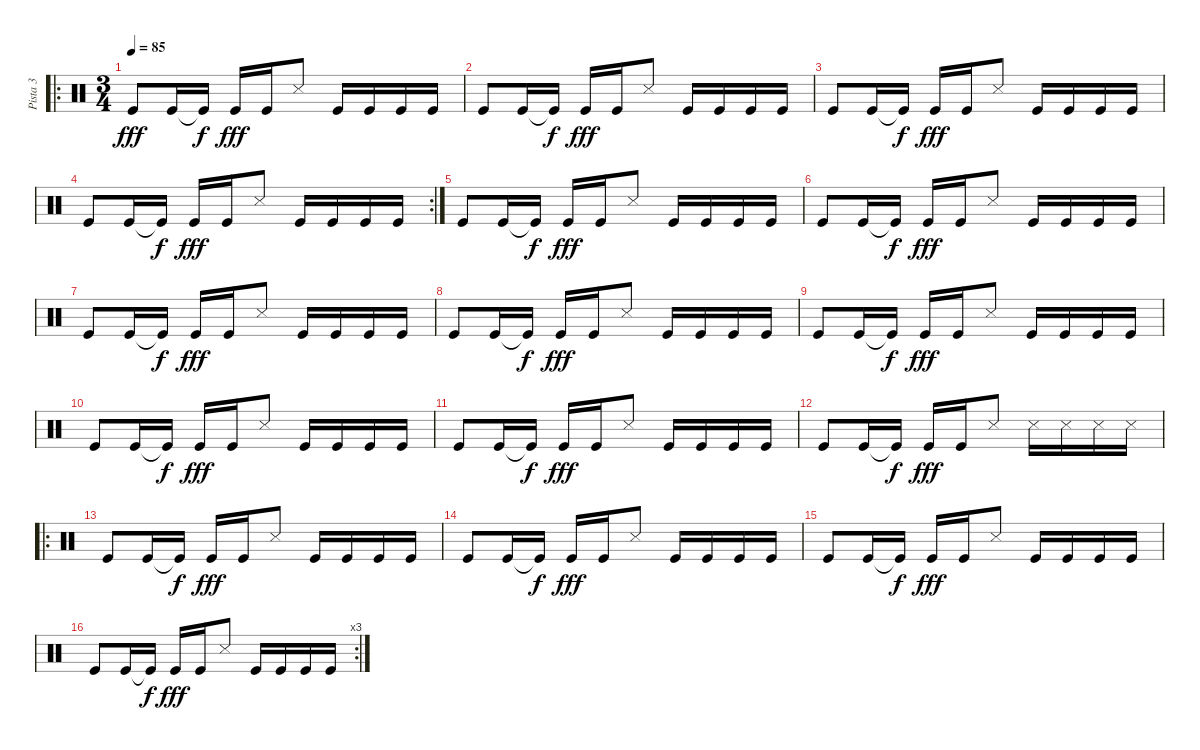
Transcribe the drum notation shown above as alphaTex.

\track ("Pista 3" "Pista 3") {instrument percussion}
\staff {score}
\articulation defaults
\ro
\ts (3 4)
\tempo 85
\clef neutral
\ks c "Kick (hit)".8{dy fff} "Kick (hit)".16 "Kick (hit)"{t}.16{dy f} "Kick (hit)".16{dy fff} "Kick (hit)".16 "Snare (side stick) 3".8 "Kick (hit)".16 "Kick (hit)".16 "Kick (hit)".16 "Kick (hit)".16
|
"Kick (hit)".8 "Kick (hit)".16 "Kick (hit)"{t}.16{dy f} "Kick (hit)".16{dy fff} "Kick (hit)".16 "Snare (side stick) 3".8 "Kick (hit)".16 "Kick (hit)".16 "Kick (hit)".16 "Kick (hit)".16 |
"Kick (hit)".8 "Kick (hit)".16 "Kick (hit)"{t}.16{dy f} "Kick (hit)".16{dy fff} "Kick (hit)".16 "Snare (side stick) 3".8 "Kick (hit)".16 "Kick (hit)".16 "Kick (hit)".16 "Kick (hit)".16 |
\rc 2 "Kick (hit)".8 "Kick (hit)".16 "Kick (hit)"{t}.16{dy f} "Kick (hit)".16{dy fff} "Kick (hit)".16 "Snare (side stick) 3".8 "Kick (hit)".16 "Kick (hit)".16 "Kick (hit)".16 "Kick (hit)".16
|
"Kick (hit)".8 "Kick (hit)".16 "Kick (hit)"{t}.16{dy f} "Kick (hit)".16{dy fff} "Kick (hit)".16 "Snare (side stick) 3".8 "Kick (hit)".16 "Kick (hit)".16 "Kick (hit)".16 "Kick (hit)".16 |
"Kick (hit)".8 "Kick (hit)".16 "Kick (hit)"{t}.16{dy f} "Kick (hit)".16{dy fff} "Kick (hit)".16 "Snare (side stick) 3".8 "Kick (hit)".16 "Kick (hit)".16 "Kick (hit)".16 "Kick (hit)".16 |
"Kick (hit)".8 "Kick (hit)".16 "Kick (hit)"{t}.16{dy f} "Kick (hit)".16{dy fff} "Kick (hit)".16 "Snare (side stick) 3".8 "Kick (hit)".16 "Kick (hit)".16 "Kick (hit)".16 "Kick (hit)".16 |
"Kick (hit)".8 "Kick (hit)".16 "Kick (hit)"{t}.16{dy f} "Kick (hit)".16{dy fff} "Kick (hit)".16 "Snare (side stick) 3".8 "Kick (hit)".16 "Kick (hit)".16 "Kick (hit)".16 "Kick (hit)".16 |
"Kick (hit)".8 "Kick (hit)".16 "Kick (hit)"{t}.16{dy f} "Kick (hit)".16{dy fff} "Kick (hit)".16 "Snare (side stick) 3".8 "Kick (hit)".16 "Kick (hit)".16 "Kick (hit)".16 "Kick (hit)".16 |
"Kick (hit)".8 "Kick (hit)".16 "Kick (hit)"{t}.16{dy f} "Kick (hit)".16{dy fff} "Kick (hit)".16 "Snare (side stick) 3".8 "Kick (hit)".16 "Kick (hit)".16 "Kick (hit)".16 "Kick (hit)".16 |
"Kick (hit)".8 "Kick (hit)".16 "Kick (hit)"{t}.16{dy f} "Kick (hit)".16{dy fff} "Kick (hit)".16 "Snare (side stick) 3".8 "Kick (hit)".16 "Kick (hit)".16 "Kick (hit)".16 "Kick (hit)".16 |
"Kick (hit)".8 "Kick (hit)".16 "Kick (hit)"{t}.16{dy f} "Kick (hit)".16{dy fff} "Kick (hit)".16 "Snare (side stick) 3".8 "Snare (side stick) 3".16 "Snare (side stick) 3".16 "Snare (side stick) 3".16 "Snare (side stick) 3".16 |
\ro "Kick (hit)".8 "Kick (hit)".16 "Kick (hit)"{t}.16{dy f} "Kick (hit)".16{dy fff} "Kick (hit)".16 "Snare (side stick) 3".8 "Kick (hit)".16 "Kick (hit)".16 "Kick (hit)".16 "Kick (hit)".16
|
"Kick (hit)".8 "Kick (hit)".16 "Kick (hit)"{t}.16{dy f} "Kick (hit)".16{dy fff} "Kick (hit)".16 "Snare (side stick) 3".8 "Kick (hit)".16 "Kick (hit)".16 "Kick (hit)".16 "Kick (hit)".16 |
"Kick (hit)".8 "Kick (hit)".16 "Kick (hit)"{t}.16{dy f} "Kick (hit)".16{dy fff} "Kick (hit)".16 "Snare (side stick) 3".8 "Kick (hit)".16 "Kick (hit)".16 "Kick (hit)".16 "Kick (hit)".16 |
\rc 3 "Kick (hit)".8 "Kick (hit)".16 "Kick (hit)"{t}.16{dy f} "Kick (hit)".16{dy fff} "Kick (hit)".16 "Snare (side stick) 3".8 "Kick (hit)".16 "Kick (hit)".16 "Kick (hit)".16 "Kick (hit)".16
